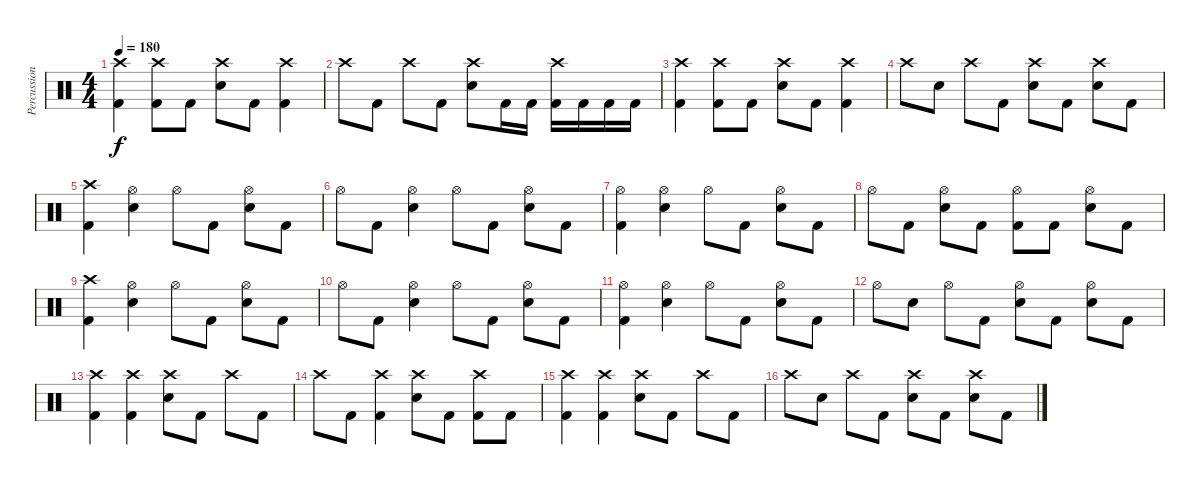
\track ("Percussion" "Percussion") {instrument percussion}
\staff {score}
\articulation defaults
\ts (4 4)
\tempo 180
\clef neutral
\ks c
("Crash high (hit)" "Kick (hit) 2").4{dy f} ("Crash high (hit)" "Kick (hit) 2").8 "Kick (hit) 2".8 ("Crash high (hit)" "Electric Snare (hit)").8 "Kick (hit) 2".8 ("Crash high (hit)" "Kick (hit) 2").4 |
"Crash high (hit)".8 "Kick (hit) 2".8 "Crash high (hit)".8 "Kick (hit) 2".8 ("Crash high (hit)" "Electric Snare (hit)").8 "Kick (hit) 2".16 "Kick (hit) 2".16 ("Crash high (hit)" "Kick (hit) 2").16 "Kick (hit) 2".16 "Kick (hit) 2".16 "Kick (hit) 2".16 |
("Crash high (hit)" "Kick (hit) 2").4 ("Crash high (hit)" "Kick (hit) 2").8 "Kick (hit) 2".8 ("Crash high (hit)" "Electric Snare (hit)").8 "Kick (hit) 2".8 ("Crash high (hit)" "Kick (hit) 2").4 |
"Crash high (hit)".8 "Electric Snare (hit)".8 "Crash high (hit)".8 "Kick (hit) 2".8 ("Crash high (hit)" "Electric Snare (hit)").8 "Kick (hit) 2".8 ("Crash high (hit)" "Electric Snare (hit)").8 "Kick (hit) 2".8 |
("Crash high (hit)" "Kick (hit) 2").4 ("Hi-Hat (open)" "Electric Snare (hit)").4 "Hi-Hat (open)".8 "Kick (hit) 2".8 ("Hi-Hat (open)" "Electric Snare (hit)").8 "Kick (hit) 2".8 |
"Hi-Hat (open)".8 "Kick (hit) 2".8 ("Hi-Hat (open)" "Electric Snare (hit)").4 "Hi-Hat (open)".8 "Kick (hit) 2".8 ("Hi-Hat (open)" "Electric Snare (hit)").8 "Kick (hit) 2".8 |
("Hi-Hat (open)" "Kick (hit) 2").4 ("Hi-Hat (open)" "Electric Snare (hit)").4 "Hi-Hat (open)".8 "Kick (hit) 2".8 ("Hi-Hat (open)" "Electric Snare (hit)").8 "Kick (hit) 2".8 |
"Hi-Hat (open)".8 "Kick (hit) 2".8 ("Hi-Hat (open)" "Electric Snare (hit)").8 "Kick (hit) 2".8 ("Hi-Hat (open)" "Kick (hit) 2").8 "Kick (hit) 2".8 ("Hi-Hat (open)" "Electric Snare (hit)").8 "Kick (hit) 2".8 |
("Crash high (hit)" "Kick (hit) 2").4 ("Hi-Hat (open)" "Electric Snare (hit)").4 "Hi-Hat (open)".8 "Kick (hit) 2".8 ("Hi-Hat (open)" "Electric Snare (hit)").8 "Kick (hit) 2".8 |
"Hi-Hat (open)".8 "Kick (hit) 2".8 ("Hi-Hat (open)" "Electric Snare (hit)").4 "Hi-Hat (open)".8 "Kick (hit) 2".8 ("Hi-Hat (open)" "Electric Snare (hit)").8 "Kick (hit) 2".8 |
("Hi-Hat (open)" "Kick (hit) 2").4 ("Hi-Hat (open)" "Electric Snare (hit)").4 "Hi-Hat (open)".8 "Kick (hit) 2".8 ("Hi-Hat (open)" "Electric Snare (hit)").8 "Kick (hit) 2".8 |
"Hi-Hat (open)".8 "Electric Snare (hit)".8 "Hi-Hat (open)".8 "Kick (hit) 2".8 ("Hi-Hat (open)" "Electric Snare (hit)").8 "Kick (hit) 2".8 ("Hi-Hat (open)" "Electric Snare (hit)").8 "Kick (hit) 2".8 |
("Crash high (hit)" "Kick (hit) 2").4 ("Crash high (hit)" "Kick (hit) 2").4 ("Crash high (hit)" "Electric Snare (hit)").8 "Kick (hit) 2".8 "Crash high (hit)".8 "Kick (hit) 2".8 |
"Crash high (hit)".8 "Kick (hit) 2".8 ("Crash high (hit)" "Kick (hit) 2").4 ("Crash high (hit)" "Electric Snare (hit)").8 "Kick (hit) 2".8 ("Crash high (hit)" "Kick (hit) 2").8 "Kick (hit) 2".8 |
("Crash high (hit)" "Kick (hit) 2").4 ("Crash high (hit)" "Kick (hit) 2").4 ("Crash high (hit)" "Electric Snare (hit)").8 "Kick (hit) 2".8 "Crash high (hit)".8 "Kick (hit) 2".8 |
"Crash high (hit)".8 "Electric Snare (hit)".8 "Crash high (hit)".8 "Kick (hit) 2".8 ("Crash high (hit)" "Electric Snare (hit)").8 "Kick (hit) 2".8 ("Crash high (hit)" "Electric Snare (hit)").8 "Kick (hit) 2".8
